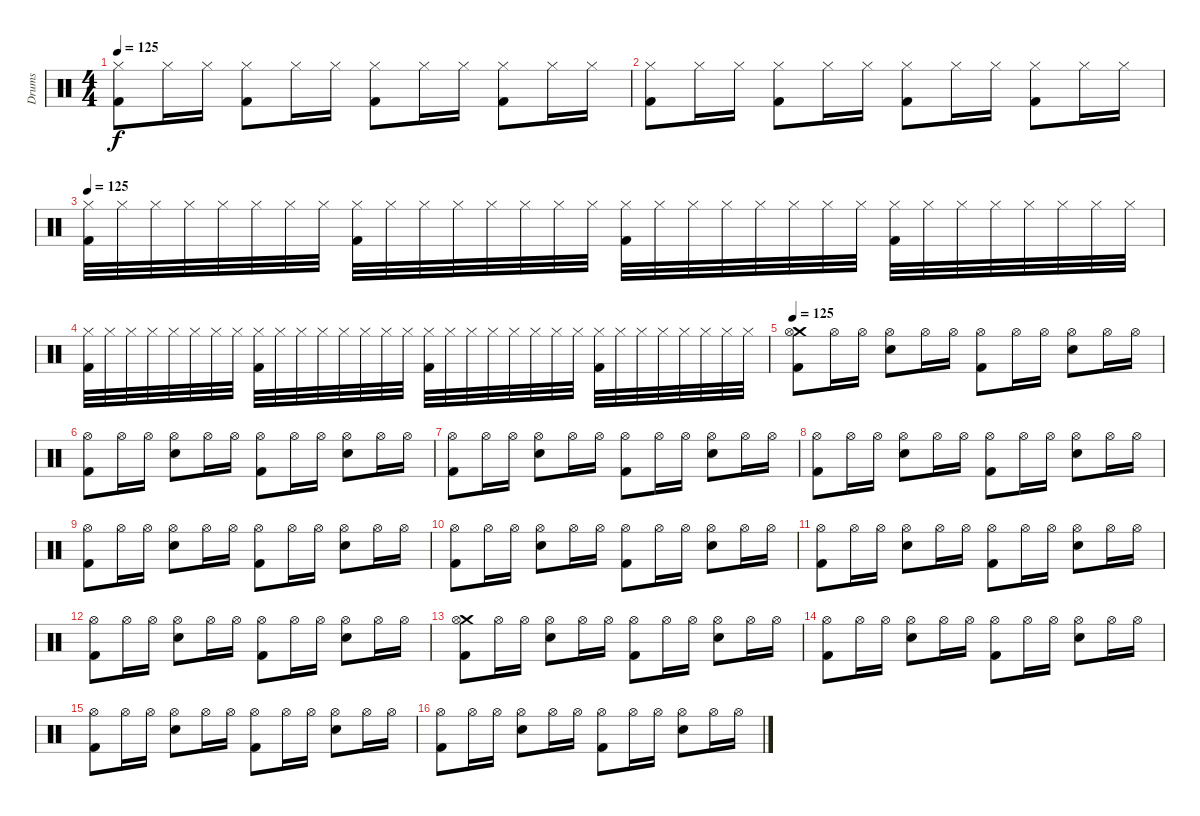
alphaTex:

\track ("Drums" "Drums") {instrument percussion}
\staff {score}
\articulation defaults
\ts (4 4)
\tempo 125
\clef neutral
\ks c
("Hi-Hat (closed)" "Kick (hit) 2").8{dy f} "Hi-Hat (closed)".16 "Hi-Hat (closed)".16 ("Hi-Hat (closed)" "Kick (hit) 2").8 "Hi-Hat (closed)".16 "Hi-Hat (closed)".16 ("Hi-Hat (closed)" "Kick (hit) 2").8 "Hi-Hat (closed)".16 "Hi-Hat (closed)".16 ("Hi-Hat (closed)" "Kick (hit) 2").8 "Hi-Hat (closed)".16 "Hi-Hat (closed)".16 |
("Hi-Hat (closed)" "Kick (hit) 2").8 "Hi-Hat (closed)".16 "Hi-Hat (closed)".16 ("Hi-Hat (closed)" "Kick (hit) 2").8 "Hi-Hat (closed)".16 "Hi-Hat (closed)".16 ("Hi-Hat (closed)" "Kick (hit) 2").8 "Hi-Hat (closed)".16 "Hi-Hat (closed)".16 ("Hi-Hat (closed)" "Kick (hit) 2").8 "Hi-Hat (closed)".16 "Hi-Hat (closed)".16 |
\tempo 125
("Hi-Hat (closed)" "Kick (hit) 2").32 "Hi-Hat (closed)".32 "Hi-Hat (closed)".32 "Hi-Hat (closed)".32 "Hi-Hat (closed)".32 "Hi-Hat (closed)".32 "Hi-Hat (closed)".32 "Hi-Hat (closed)".32 ("Hi-Hat (closed)" "Kick (hit) 2").32 "Hi-Hat (closed)".32 "Hi-Hat (closed)".32 "Hi-Hat (closed)".32 "Hi-Hat (closed)".32 "Hi-Hat (closed)".32 "Hi-Hat (closed)".32 "Hi-Hat (closed)".32 ("Hi-Hat (closed)" "Kick (hit) 2").32 "Hi-Hat (closed)".32 "Hi-Hat (closed)".32 "Hi-Hat (closed)".32 "Hi-Hat (closed)".32 "Hi-Hat (closed)".32 "Hi-Hat (closed)".32 "Hi-Hat (closed)".32 ("Hi-Hat (closed)" "Kick (hit) 2").32 "Hi-Hat (closed)".32 "Hi-Hat (closed)".32 "Hi-Hat (closed)".32 "Hi-Hat (closed)".32 "Hi-Hat (closed)".32 "Hi-Hat (closed)".32 "Hi-Hat (closed)".32 |
("Hi-Hat (closed)" "Kick (hit) 2").32 "Hi-Hat (closed)".32 "Hi-Hat (closed)".32 "Hi-Hat (closed)".32 "Hi-Hat (closed)".32 "Hi-Hat (closed)".32 "Hi-Hat (closed)".32 "Hi-Hat (closed)".32 ("Hi-Hat (closed)" "Kick (hit) 2").32 "Hi-Hat (closed)".32 "Hi-Hat (closed)".32 "Hi-Hat (closed)".32 "Hi-Hat (closed)".32 "Hi-Hat (closed)".32 "Hi-Hat (closed)".32 "Hi-Hat (closed)".32 ("Hi-Hat (closed)" "Kick (hit) 2").32 "Hi-Hat (closed)".32 "Hi-Hat (closed)".32 "Hi-Hat (closed)".32 "Hi-Hat (closed)".32 "Hi-Hat (closed)".32 "Hi-Hat (closed)".32 "Hi-Hat (closed)".32 ("Hi-Hat (closed)" "Kick (hit) 2").32 "Hi-Hat (closed)".32 "Hi-Hat (closed)".32 "Hi-Hat (closed)".32 "Hi-Hat (closed)".32 "Hi-Hat (closed)".32 "Hi-Hat (closed)".32 "Hi-Hat (closed)".32 |
\tempo 125
("Crash medium (hit)" "Hi-Hat (open)" "Kick (hit) 2").8 "Hi-Hat (open)".16 "Hi-Hat (open)".16 ("Hi-Hat (open)" "Electric Snare (hit)").8 "Hi-Hat (open)".16 "Hi-Hat (open)".16 ("Hi-Hat (open)" "Kick (hit) 2").8 "Hi-Hat (open)".16 "Hi-Hat (open)".16 ("Hi-Hat (open)" "Electric Snare (hit)").8 "Hi-Hat (open)".16 "Hi-Hat (open)".16 |
("Hi-Hat (open)" "Kick (hit) 2").8 "Hi-Hat (open)".16 "Hi-Hat (open)".16 ("Hi-Hat (open)" "Electric Snare (hit)").8 "Hi-Hat (open)".16 "Hi-Hat (open)".16 ("Hi-Hat (open)" "Kick (hit) 2").8 "Hi-Hat (open)".16 "Hi-Hat (open)".16 ("Hi-Hat (open)" "Electric Snare (hit)").8 "Hi-Hat (open)".16 "Hi-Hat (open)".16 |
("Hi-Hat (open)" "Kick (hit) 2").8 "Hi-Hat (open)".16 "Hi-Hat (open)".16 ("Hi-Hat (open)" "Electric Snare (hit)").8 "Hi-Hat (open)".16 "Hi-Hat (open)".16 ("Hi-Hat (open)" "Kick (hit) 2").8 "Hi-Hat (open)".16 "Hi-Hat (open)".16 ("Hi-Hat (open)" "Electric Snare (hit)").8 "Hi-Hat (open)".16 "Hi-Hat (open)".16 |
("Hi-Hat (open)" "Kick (hit) 2").8 "Hi-Hat (open)".16 "Hi-Hat (open)".16 ("Hi-Hat (open)" "Electric Snare (hit)").8 "Hi-Hat (open)".16 "Hi-Hat (open)".16 ("Hi-Hat (open)" "Kick (hit) 2").8 "Hi-Hat (open)".16 "Hi-Hat (open)".16 ("Hi-Hat (open)" "Electric Snare (hit)").8 "Hi-Hat (open)".16 "Hi-Hat (open)".16 |
("Hi-Hat (open)" "Kick (hit) 2").8 "Hi-Hat (open)".16 "Hi-Hat (open)".16 ("Hi-Hat (open)" "Electric Snare (hit)").8 "Hi-Hat (open)".16 "Hi-Hat (open)".16 ("Hi-Hat (open)" "Kick (hit) 2").8 "Hi-Hat (open)".16 "Hi-Hat (open)".16 ("Hi-Hat (open)" "Electric Snare (hit)").8 "Hi-Hat (open)".16 "Hi-Hat (open)".16 |
("Hi-Hat (open)" "Kick (hit) 2").8 "Hi-Hat (open)".16 "Hi-Hat (open)".16 ("Hi-Hat (open)" "Electric Snare (hit)").8 "Hi-Hat (open)".16 "Hi-Hat (open)".16 ("Hi-Hat (open)" "Kick (hit) 2").8 "Hi-Hat (open)".16 "Hi-Hat (open)".16 ("Hi-Hat (open)" "Electric Snare (hit)").8 "Hi-Hat (open)".16 "Hi-Hat (open)".16 |
("Hi-Hat (open)" "Kick (hit) 2").8 "Hi-Hat (open)".16 "Hi-Hat (open)".16 ("Hi-Hat (open)" "Electric Snare (hit)").8 "Hi-Hat (open)".16 "Hi-Hat (open)".16 ("Hi-Hat (open)" "Kick (hit) 2").8 "Hi-Hat (open)".16 "Hi-Hat (open)".16 ("Hi-Hat (open)" "Electric Snare (hit)").8 "Hi-Hat (open)".16 "Hi-Hat (open)".16 |
("Hi-Hat (open)" "Kick (hit) 2").8 "Hi-Hat (open)".16 "Hi-Hat (open)".16 ("Hi-Hat (open)" "Electric Snare (hit)").8 "Hi-Hat (open)".16 "Hi-Hat (open)".16 ("Hi-Hat (open)" "Kick (hit) 2").8 "Hi-Hat (open)".16 "Hi-Hat (open)".16 ("Hi-Hat (open)" "Electric Snare (hit)").8 "Hi-Hat (open)".16 "Hi-Hat (open)".16 |
("Crash medium (hit)" "Hi-Hat (open)" "Kick (hit) 2").8 "Hi-Hat (open)".16 "Hi-Hat (open)".16 ("Hi-Hat (open)" "Electric Snare (hit)").8 "Hi-Hat (open)".16 "Hi-Hat (open)".16 ("Hi-Hat (open)" "Kick (hit) 2").8 "Hi-Hat (open)".16 "Hi-Hat (open)".16 ("Hi-Hat (open)" "Electric Snare (hit)").8 "Hi-Hat (open)".16 "Hi-Hat (open)".16 |
("Hi-Hat (open)" "Kick (hit) 2").8 "Hi-Hat (open)".16 "Hi-Hat (open)".16 ("Hi-Hat (open)" "Electric Snare (hit)").8 "Hi-Hat (open)".16 "Hi-Hat (open)".16 ("Hi-Hat (open)" "Kick (hit) 2").8 "Hi-Hat (open)".16 "Hi-Hat (open)".16 ("Hi-Hat (open)" "Electric Snare (hit)").8 "Hi-Hat (open)".16 "Hi-Hat (open)".16 |
("Hi-Hat (open)" "Kick (hit) 2").8 "Hi-Hat (open)".16 "Hi-Hat (open)".16 ("Hi-Hat (open)" "Electric Snare (hit)").8 "Hi-Hat (open)".16 "Hi-Hat (open)".16 ("Hi-Hat (open)" "Kick (hit) 2").8 "Hi-Hat (open)".16 "Hi-Hat (open)".16 ("Hi-Hat (open)" "Electric Snare (hit)").8 "Hi-Hat (open)".16 "Hi-Hat (open)".16 |
("Hi-Hat (open)" "Kick (hit) 2").8 "Hi-Hat (open)".16 "Hi-Hat (open)".16 ("Hi-Hat (open)" "Electric Snare (hit)").8 "Hi-Hat (open)".16 "Hi-Hat (open)".16 ("Hi-Hat (open)" "Kick (hit) 2").8 "Hi-Hat (open)".16 "Hi-Hat (open)".16 ("Hi-Hat (open)" "Electric Snare (hit)").8 "Hi-Hat (open)".16 "Hi-Hat (open)".16
